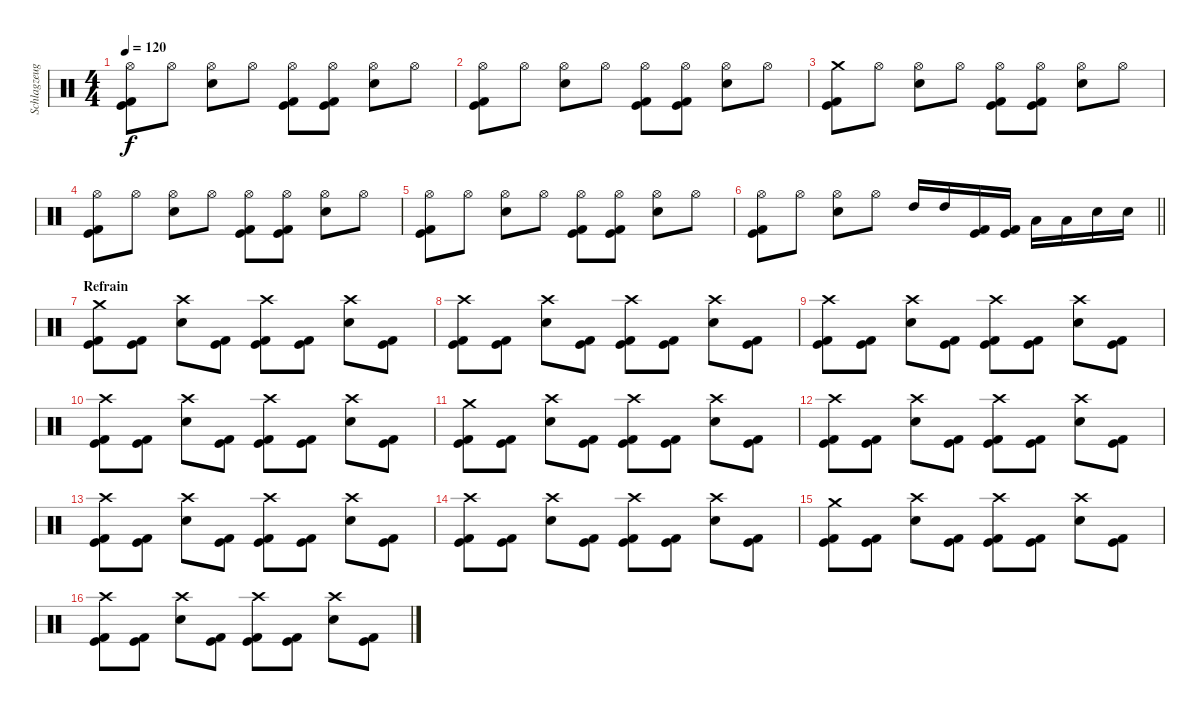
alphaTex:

\track ("Schlagzeug" "Schlagzeug") {instrument percussion}
\staff {score}
\articulation defaults
\ts (4 4)
\tempo 120
\clef neutral
\ks c
("Hi-Hat (open)" "Kick (hit) 2" "Kick (hit)").8{dy f} "Hi-Hat (open)".8 ("Hi-Hat (open)" "Electric Snare (hit)").8 "Hi-Hat (open)".8 ("Hi-Hat (open)" "Kick (hit) 2" "Kick (hit)").8 ("Hi-Hat (open)" "Kick (hit) 2" "Kick (hit)").8 ("Hi-Hat (open)" "Electric Snare (hit)").8 "Hi-Hat (open)".8 |
("Hi-Hat (open)" "Kick (hit) 2" "Kick (hit)").8 "Hi-Hat (open)".8 ("Hi-Hat (open)" "Electric Snare (hit)").8 "Hi-Hat (open)".8 ("Hi-Hat (open)" "Kick (hit) 2" "Kick (hit)").8 ("Hi-Hat (open)" "Kick (hit) 2" "Kick (hit)").8 ("Hi-Hat (open)" "Electric Snare (hit)").8 "Hi-Hat (open)".8 |
("Kick (hit) 2" "Kick (hit)" "Crash medium (hit)").8 "Hi-Hat (open)".8 ("Hi-Hat (open)" "Electric Snare (hit)").8 "Hi-Hat (open)".8 ("Hi-Hat (open)" "Kick (hit) 2" "Kick (hit)").8 ("Hi-Hat (open)" "Kick (hit) 2" "Kick (hit)").8 ("Hi-Hat (open)" "Electric Snare (hit)").8 "Hi-Hat (open)".8 |
("Hi-Hat (open)" "Kick (hit) 2" "Kick (hit)").8 "Hi-Hat (open)".8 ("Hi-Hat (open)" "Electric Snare (hit)").8 "Hi-Hat (open)".8 ("Hi-Hat (open)" "Kick (hit) 2" "Kick (hit)").8 ("Hi-Hat (open)" "Kick (hit) 2" "Kick (hit)").8 ("Hi-Hat (open)" "Electric Snare (hit)").8 "Hi-Hat (open)".8 |
("Hi-Hat (open)" "Kick (hit) 2" "Kick (hit)").8 "Hi-Hat (open)".8 ("Hi-Hat (open)" "Electric Snare (hit)").8 "Hi-Hat (open)".8 ("Hi-Hat (open)" "Kick (hit) 2" "Kick (hit)").8 ("Hi-Hat (open)" "Kick (hit) 2" "Kick (hit)").8 ("Hi-Hat (open)" "Electric Snare (hit)").8 "Hi-Hat (open)".8 |
\barLineRight lightlight
("Hi-Hat (open)" "Kick (hit) 2" "Kick (hit)").8 "Hi-Hat (open)".8 ("Hi-Hat (open)" "Electric Snare (hit)").8 "Hi-Hat (open)".8 "High Tom (hit)".16 "High Tom (hit)".16 ("Kick (hit) 2" "Kick (hit)").16 ("Kick (hit) 2" "Kick (hit)").16 "Low Tom (hit)".16 "Low Tom (hit)".16 "Electric Snare (hit)".16 "Electric Snare (hit)".16 |
\section ("" "Refrain")
("Kick (hit) 2" "Kick (hit)" "Crash medium (hit)").8 ("Kick (hit) 2" "Kick (hit)").8 ("Electric Snare (hit)" "Crash high (hit)").8 ("Kick (hit) 2" "Kick (hit)").8 ("Kick (hit) 2" "Kick (hit)" "Crash high (hit)").8 ("Kick (hit) 2" "Kick (hit)").8 ("Electric Snare (hit)" "Crash high (hit)").8 ("Kick (hit) 2" "Kick (hit)").8 |
("Kick (hit) 2" "Kick (hit)" "Crash high (hit)").8 ("Kick (hit) 2" "Kick (hit)").8 ("Electric Snare (hit)" "Crash high (hit)").8 ("Kick (hit) 2" "Kick (hit)").8 ("Kick (hit) 2" "Kick (hit)" "Crash high (hit)").8 ("Kick (hit) 2" "Kick (hit)").8 ("Electric Snare (hit)" "Crash high (hit)").8 ("Kick (hit) 2" "Kick (hit)").8 |
("Kick (hit) 2" "Kick (hit)" "Crash high (hit)").8 ("Kick (hit) 2" "Kick (hit)").8 ("Electric Snare (hit)" "Crash high (hit)").8 ("Kick (hit) 2" "Kick (hit)").8 ("Kick (hit) 2" "Kick (hit)" "Crash high (hit)").8 ("Kick (hit) 2" "Kick (hit)").8 ("Electric Snare (hit)" "Crash high (hit)").8 ("Kick (hit) 2" "Kick (hit)").8 |
("Kick (hit) 2" "Kick (hit)" "Crash high (hit)").8 ("Kick (hit) 2" "Kick (hit)").8 ("Electric Snare (hit)" "Crash high (hit)").8 ("Kick (hit) 2" "Kick (hit)").8 ("Kick (hit) 2" "Kick (hit)" "Crash high (hit)").8 ("Kick (hit) 2" "Kick (hit)").8 ("Electric Snare (hit)" "Crash high (hit)").8 ("Kick (hit) 2" "Kick (hit)").8 |
("Kick (hit) 2" "Kick (hit)" "Crash medium (hit)").8 ("Kick (hit) 2" "Kick (hit)").8 ("Electric Snare (hit)" "Crash high (hit)").8 ("Kick (hit) 2" "Kick (hit)").8 ("Kick (hit) 2" "Kick (hit)" "Crash high (hit)").8 ("Kick (hit) 2" "Kick (hit)").8 ("Electric Snare (hit)" "Crash high (hit)").8 ("Kick (hit) 2" "Kick (hit)").8 |
("Kick (hit) 2" "Kick (hit)" "Crash high (hit)").8 ("Kick (hit) 2" "Kick (hit)").8 ("Electric Snare (hit)" "Crash high (hit)").8 ("Kick (hit) 2" "Kick (hit)").8 ("Kick (hit) 2" "Kick (hit)" "Crash high (hit)").8 ("Kick (hit) 2" "Kick (hit)").8 ("Electric Snare (hit)" "Crash high (hit)").8 ("Kick (hit) 2" "Kick (hit)").8 |
("Kick (hit) 2" "Kick (hit)" "Crash high (hit)").8 ("Kick (hit) 2" "Kick (hit)").8 ("Electric Snare (hit)" "Crash high (hit)").8 ("Kick (hit) 2" "Kick (hit)").8 ("Kick (hit) 2" "Kick (hit)" "Crash high (hit)").8 ("Kick (hit) 2" "Kick (hit)").8 ("Electric Snare (hit)" "Crash high (hit)").8 ("Kick (hit) 2" "Kick (hit)").8 |
("Kick (hit) 2" "Kick (hit)" "Crash high (hit)").8 ("Kick (hit) 2" "Kick (hit)").8 ("Electric Snare (hit)" "Crash high (hit)").8 ("Kick (hit) 2" "Kick (hit)").8 ("Kick (hit) 2" "Kick (hit)" "Crash high (hit)").8 ("Kick (hit) 2" "Kick (hit)").8 ("Electric Snare (hit)" "Crash high (hit)").8 ("Kick (hit) 2" "Kick (hit)").8 |
("Kick (hit) 2" "Kick (hit)" "Crash medium (hit)").8 ("Kick (hit) 2" "Kick (hit)").8 ("Electric Snare (hit)" "Crash high (hit)").8 ("Kick (hit) 2" "Kick (hit)").8 ("Kick (hit) 2" "Kick (hit)" "Crash high (hit)").8 ("Kick (hit) 2" "Kick (hit)").8 ("Electric Snare (hit)" "Crash high (hit)").8 ("Kick (hit) 2" "Kick (hit)").8 |
("Kick (hit) 2" "Kick (hit)" "Crash high (hit)").8 ("Kick (hit) 2" "Kick (hit)").8 ("Electric Snare (hit)" "Crash high (hit)").8 ("Kick (hit) 2" "Kick (hit)").8 ("Kick (hit) 2" "Kick (hit)" "Crash high (hit)").8 ("Kick (hit) 2" "Kick (hit)").8 ("Electric Snare (hit)" "Crash high (hit)").8 ("Kick (hit) 2" "Kick (hit)").8
